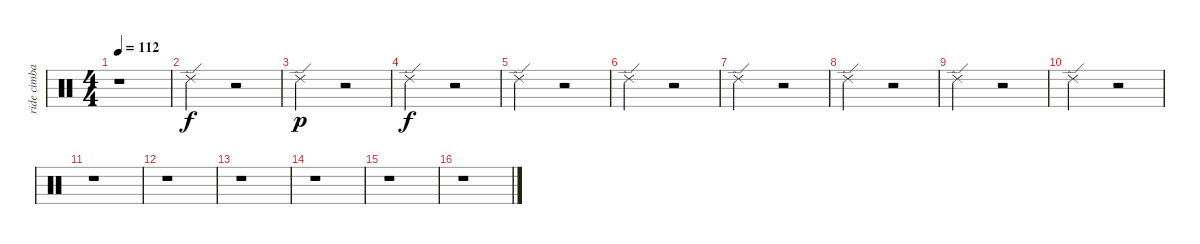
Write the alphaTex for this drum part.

\track ("ride cimbal" "ride cimba") {instrument percussion}
\staff {score}
\articulation defaults
\ts (4 4)
\tempo 112
\clef neutral
\ks c
r.1{dy f} |
"Ride (edge) 2".2 r.2 |
"Ride (edge) 2".2{dy p} r.2 |
"Ride (edge) 2".2{dy f} r.2 |
"Ride (edge) 2".2 r.2 |
"Ride (edge) 2".2 r.2 |
"Ride (edge) 2".2 r.2 |
"Ride (edge) 2".2 r.2 |
"Ride (edge) 2".2 r.2 |
"Ride (edge) 2".2 r.2 |
r.1 |
r.1 |
r.1 |
r.1 |
r.1 |
r.1
